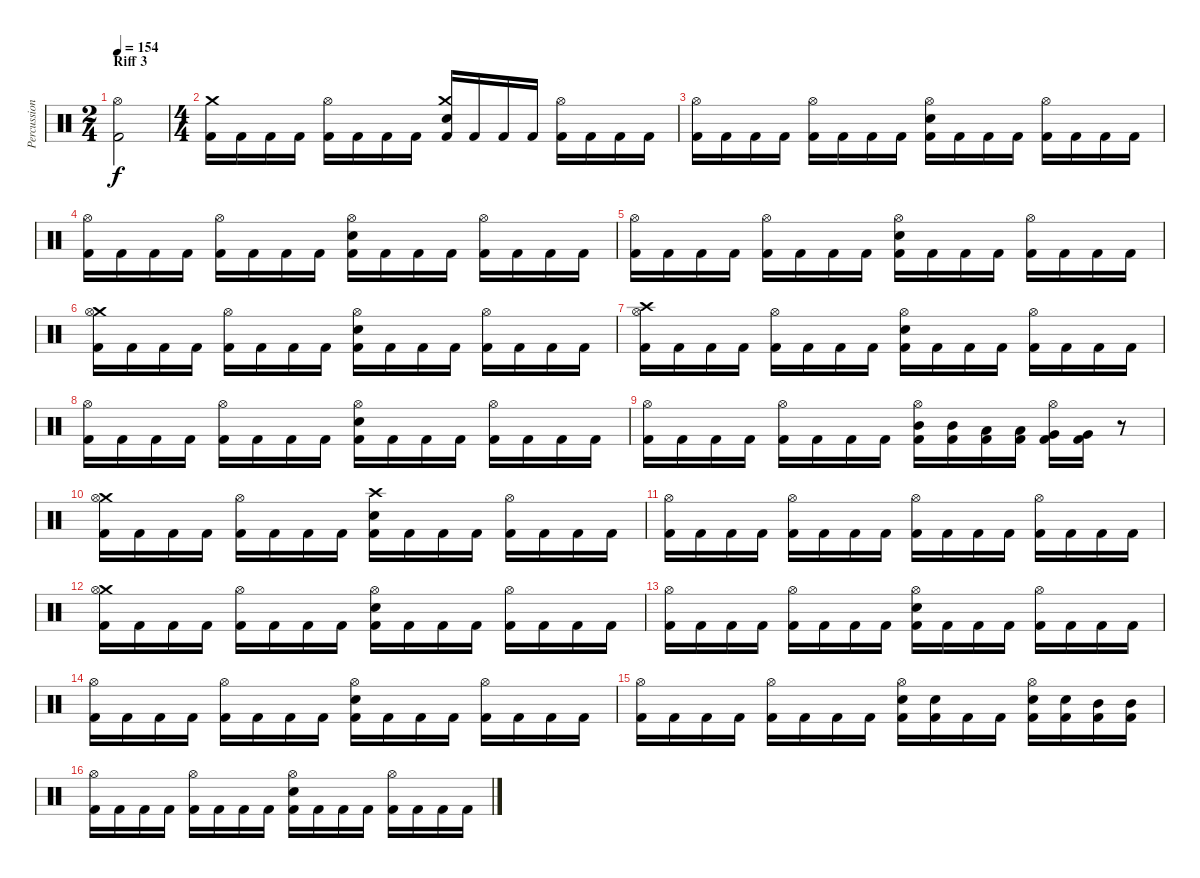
\track ("Percussion" "Percussion") {instrument percussion}
\staff {score}
\articulation defaults
\ts (2 4)
\section ("" "Riff 3")
\tempo 154
\clef neutral
\ks c
("Hi-Hat (open)" "Kick (hit) 2").2{dy f} |
\ts (4 4)
("Crash medium (hit)" "Kick (hit) 2").16 "Kick (hit) 2".16 "Kick (hit) 2".16 "Kick (hit) 2".16 ("Hi-Hat (open)" "Kick (hit) 2").16 "Kick (hit) 2".16 "Kick (hit) 2".16 "Kick (hit) 2".16 ("Crash medium (hit)" "Electric Snare (hit)" "Kick (hit) 2").16 "Kick (hit) 2".16 "Kick (hit) 2".16 "Kick (hit) 2".16 ("Hi-Hat (open)" "Kick (hit) 2").16 "Kick (hit) 2".16 "Kick (hit) 2".16 "Kick (hit) 2".16 |
("Hi-Hat (open)" "Kick (hit) 2").16 "Kick (hit) 2".16 "Kick (hit) 2".16 "Kick (hit) 2".16 ("Hi-Hat (open)" "Kick (hit) 2").16 "Kick (hit) 2".16 "Kick (hit) 2".16 "Kick (hit) 2".16 ("Hi-Hat (open)" "Electric Snare (hit)" "Kick (hit) 2").16 "Kick (hit) 2".16 "Kick (hit) 2".16 "Kick (hit) 2".16 ("Hi-Hat (open)" "Kick (hit) 2").16 "Kick (hit) 2".16 "Kick (hit) 2".16 "Kick (hit) 2".16 |
("Hi-Hat (open)" "Kick (hit) 2").16 "Kick (hit) 2".16 "Kick (hit) 2".16 "Kick (hit) 2".16 ("Hi-Hat (open)" "Kick (hit) 2").16 "Kick (hit) 2".16 "Kick (hit) 2".16 "Kick (hit) 2".16 ("Hi-Hat (open)" "Electric Snare (hit)" "Kick (hit) 2").16 "Kick (hit) 2".16 "Kick (hit) 2".16 "Kick (hit) 2".16 ("Hi-Hat (open)" "Kick (hit) 2").16 "Kick (hit) 2".16 "Kick (hit) 2".16 "Kick (hit) 2".16 |
("Hi-Hat (open)" "Kick (hit) 2").16 "Kick (hit) 2".16 "Kick (hit) 2".16 "Kick (hit) 2".16 ("Hi-Hat (open)" "Kick (hit) 2").16 "Kick (hit) 2".16 "Kick (hit) 2".16 "Kick (hit) 2".16 ("Hi-Hat (open)" "Electric Snare (hit)" "Kick (hit) 2").16 "Kick (hit) 2".16 "Kick (hit) 2".16 "Kick (hit) 2".16 ("Hi-Hat (open)" "Kick (hit) 2").16 "Kick (hit) 2".16 "Kick (hit) 2".16 "Kick (hit) 2".16 |
("Crash medium (hit)" "Hi-Hat (open)" "Kick (hit) 2").16 "Kick (hit) 2".16 "Kick (hit) 2".16 "Kick (hit) 2".16 ("Hi-Hat (open)" "Kick (hit) 2").16 "Kick (hit) 2".16 "Kick (hit) 2".16 "Kick (hit) 2".16 ("Hi-Hat (open)" "Electric Snare (hit)" "Kick (hit) 2").16 "Kick (hit) 2".16 "Kick (hit) 2".16 "Kick (hit) 2".16 ("Hi-Hat (open)" "Kick (hit) 2").16 "Kick (hit) 2".16 "Kick (hit) 2".16 "Kick (hit) 2".16 |
("Crash high (hit)" "Hi-Hat (open)" "Kick (hit) 2").16 "Kick (hit) 2".16 "Kick (hit) 2".16 "Kick (hit) 2".16 ("Hi-Hat (open)" "Kick (hit) 2").16 "Kick (hit) 2".16 "Kick (hit) 2".16 "Kick (hit) 2".16 ("Hi-Hat (open)" "Electric Snare (hit)" "Kick (hit) 2").16 "Kick (hit) 2".16 "Kick (hit) 2".16 "Kick (hit) 2".16 ("Hi-Hat (open)" "Kick (hit) 2").16 "Kick (hit) 2".16 "Kick (hit) 2".16 "Kick (hit) 2".16 |
("Hi-Hat (open)" "Kick (hit) 2").16 "Kick (hit) 2".16 "Kick (hit) 2".16 "Kick (hit) 2".16 ("Hi-Hat (open)" "Kick (hit) 2").16 "Kick (hit) 2".16 "Kick (hit) 2".16 "Kick (hit) 2".16 ("Hi-Hat (open)" "Electric Snare (hit)" "Kick (hit) 2").16 "Kick (hit) 2".16 "Kick (hit) 2".16 "Kick (hit) 2".16 ("Hi-Hat (open)" "Kick (hit) 2").16 "Kick (hit) 2".16 "Kick (hit) 2".16 "Kick (hit) 2".16 |
("Hi-Hat (open)" "Kick (hit) 2").16 "Kick (hit) 2".16 "Kick (hit) 2".16 "Kick (hit) 2".16 ("Hi-Hat (open)" "Kick (hit) 2").16 "Kick (hit) 2".16 "Kick (hit) 2".16 "Kick (hit) 2".16 ("Hi-Hat (open)" "Mid Tom (hit)" "Kick (hit) 2").16 ("Mid Tom (hit)" "Kick (hit) 2").16 ("Low Tom (hit)" "Kick (hit) 2").16 ("Low Tom (hit)" "Kick (hit) 2").16 ("Hi-Hat (open)" "Very Low Tom (hit)" "Kick (hit) 2").16 ("Very Low Tom (hit)" "Kick (hit) 2").16 r.8 |
("Crash medium (hit)" "Hi-Hat (open)" "Kick (hit) 2").16 "Kick (hit) 2".16 "Kick (hit) 2".16 "Kick (hit) 2".16 ("Hi-Hat (open)" "Kick (hit) 2").16 "Kick (hit) 2".16 "Kick (hit) 2".16 "Kick (hit) 2".16 ("Crash high (hit)" "Electric Snare (hit)" "Kick (hit) 2").16 "Kick (hit) 2".16 "Kick (hit) 2".16 "Kick (hit) 2".16 ("Hi-Hat (open)" "Kick (hit) 2").16 "Kick (hit) 2".16 "Kick (hit) 2".16 "Kick (hit) 2".16 |
("Hi-Hat (open)" "Kick (hit) 2").16 "Kick (hit) 2".16 "Kick (hit) 2".16 "Kick (hit) 2".16 ("Hi-Hat (open)" "Kick (hit) 2").16 "Kick (hit) 2".16 "Kick (hit) 2".16 "Kick (hit) 2".16 ("Hi-Hat (open)" "Kick (hit) 2").16 "Kick (hit) 2".16 "Kick (hit) 2".16 "Kick (hit) 2".16 ("Hi-Hat (open)" "Kick (hit) 2").16 "Kick (hit) 2".16 "Kick (hit) 2".16 "Kick (hit) 2".16 |
("Crash medium (hit)" "Hi-Hat (open)" "Kick (hit) 2").16 "Kick (hit) 2".16 "Kick (hit) 2".16 "Kick (hit) 2".16 ("Hi-Hat (open)" "Kick (hit) 2").16 "Kick (hit) 2".16 "Kick (hit) 2".16 "Kick (hit) 2".16 ("Hi-Hat (open)" "Electric Snare (hit)" "Kick (hit) 2").16 "Kick (hit) 2".16 "Kick (hit) 2".16 "Kick (hit) 2".16 ("Hi-Hat (open)" "Kick (hit) 2").16 "Kick (hit) 2".16 "Kick (hit) 2".16 "Kick (hit) 2".16 |
("Hi-Hat (open)" "Kick (hit) 2").16 "Kick (hit) 2".16 "Kick (hit) 2".16 "Kick (hit) 2".16 ("Hi-Hat (open)" "Kick (hit) 2").16 "Kick (hit) 2".16 "Kick (hit) 2".16 "Kick (hit) 2".16 ("Hi-Hat (open)" "Electric Snare (hit)" "Kick (hit) 2").16 "Kick (hit) 2".16 "Kick (hit) 2".16 "Kick (hit) 2".16 ("Hi-Hat (open)" "Kick (hit) 2").16 "Kick (hit) 2".16 "Kick (hit) 2".16 "Kick (hit) 2".16 |
("Hi-Hat (open)" "Kick (hit) 2").16 "Kick (hit) 2".16 "Kick (hit) 2".16 "Kick (hit) 2".16 ("Hi-Hat (open)" "Kick (hit) 2").16 "Kick (hit) 2".16 "Kick (hit) 2".16 "Kick (hit) 2".16 ("Hi-Hat (open)" "Electric Snare (hit)" "Kick (hit) 2").16 "Kick (hit) 2".16 "Kick (hit) 2".16 "Kick (hit) 2".16 ("Hi-Hat (open)" "Kick (hit) 2").16 "Kick (hit) 2".16 "Kick (hit) 2".16 "Kick (hit) 2".16 |
("Hi-Hat (open)" "Kick (hit) 2").16 "Kick (hit) 2".16 "Kick (hit) 2".16 "Kick (hit) 2".16 ("Hi-Hat (open)" "Kick (hit) 2").16 "Kick (hit) 2".16 "Kick (hit) 2".16 "Kick (hit) 2".16 ("Hi-Hat (open)" "Electric Snare (hit)" "Kick (hit) 2").16 ("Electric Snare (hit)" "Kick (hit) 2").16 "Kick (hit) 2".16 "Kick (hit) 2".16 ("Hi-Hat (open)" "Electric Snare (hit)" "Kick (hit) 2").16 ("Electric Snare (hit)" "Kick (hit) 2").16 ("Mid Tom (hit)" "Kick (hit) 2").16 ("Mid Tom (hit)" "Kick (hit) 2").16 |
("Hi-Hat (open)" "Kick (hit) 2").16 "Kick (hit) 2".16 "Kick (hit) 2".16 "Kick (hit) 2".16 ("Hi-Hat (open)" "Kick (hit) 2").16 "Kick (hit) 2".16 "Kick (hit) 2".16 "Kick (hit) 2".16 ("Hi-Hat (open)" "Electric Snare (hit)" "Kick (hit) 2").16 "Kick (hit) 2".16 "Kick (hit) 2".16 "Kick (hit) 2".16 ("Hi-Hat (open)" "Kick (hit) 2").16 "Kick (hit) 2".16 "Kick (hit) 2".16 "Kick (hit) 2".16
